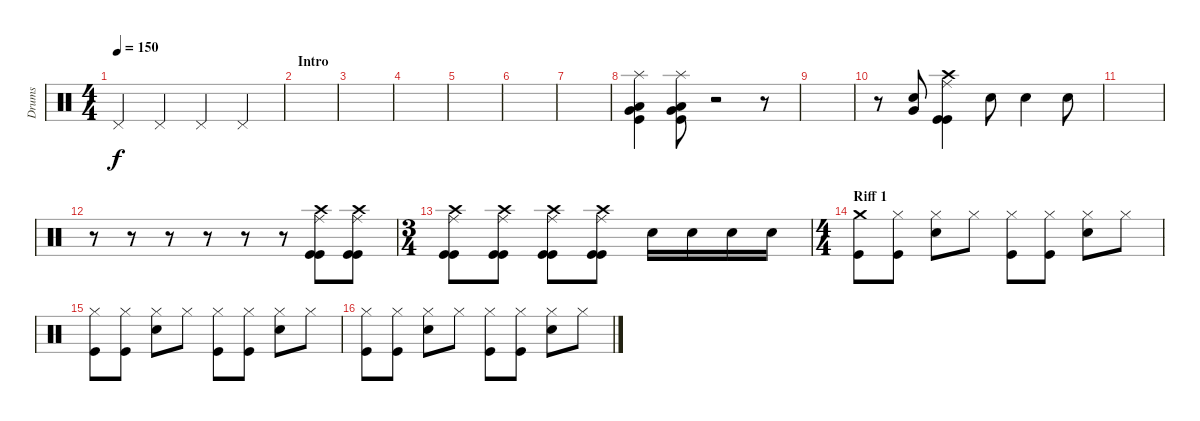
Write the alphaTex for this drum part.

\track ("Drums" "Drums") {instrument percussion}
\staff {score}
\articulation defaults
\ts (4 4)
\tempo 150
\clef neutral
\ks c "Pedal Hi-Hat (hit)".4{dy f} "Pedal Hi-Hat (hit)".4 "Pedal Hi-Hat (hit)".4 "Pedal Hi-Hat (hit)".4
|
\section ("" "Intro")
|
|
|
|
|
|
("Splash (hit)" "Low Floor Tom (hit)" "Very Low Tom (hit)" "Kick (hit)").4 ("Splash (hit)" "Low Floor Tom (hit)" "Very Low Tom (hit)" "Kick (hit)").8 r.2 r.8 |
|
r.8 ("Very Low Tom (hit)" "Electric Snare (hit)").8 ("Crash high (hit)" "Ride (middle)" "Kick (hit)" "Kick (hit)").4 "Electric Snare (hit)".8 "Electric Snare (hit)".4 "Electric Snare (hit)".8 |
|
r.8 r.8 r.8 r.8 r.8 r.8 ("Crash high (hit)" "Ride (middle)" "Kick (hit)" "Kick (hit)").8 ("Crash high (hit)" "Ride (middle)" "Kick (hit)" "Kick (hit)").8 |
\ts (3 4)
("Crash high (hit)" "Ride (middle)" "Kick (hit)" "Kick (hit)").8 ("Crash high (hit)" "Ride (middle)" "Kick (hit)" "Kick (hit)").8 ("Crash high (hit)" "Ride (middle)" "Kick (hit)" "Kick (hit)").8 ("Crash high (hit)" "Ride (middle)" "Kick (hit)" "Kick (hit)").8 "Electric Snare (hit)".16 "Electric Snare (hit)".16 "Electric Snare (hit)".16 "Electric Snare (hit)".16 |
\ts (4 4)
\section ("" "Riff 1")
("Crash medium (hit)" "Kick (hit)").8 ("Hi-Hat (closed)" "Kick (hit)").8 ("Hi-Hat (closed)" "Snare (hit) 2").8 "Hi-Hat (closed)".8 ("Hi-Hat (closed)" "Kick (hit)").8 ("Hi-Hat (closed)" "Kick (hit)").8 ("Hi-Hat (closed)" "Snare (hit) 2").8 "Hi-Hat (closed)".8 |
("Hi-Hat (closed)" "Kick (hit)").8 ("Hi-Hat (closed)" "Kick (hit)").8 ("Hi-Hat (closed)" "Snare (hit) 2").8 "Hi-Hat (closed)".8 ("Hi-Hat (closed)" "Kick (hit)").8 ("Hi-Hat (closed)" "Kick (hit)").8 ("Hi-Hat (closed)" "Snare (hit) 2").8 "Hi-Hat (closed)".8 |
("Hi-Hat (closed)" "Kick (hit)").8 ("Hi-Hat (closed)" "Kick (hit)").8 ("Hi-Hat (closed)" "Snare (hit) 2").8 "Hi-Hat (closed)".8 ("Hi-Hat (closed)" "Kick (hit)").8 ("Hi-Hat (closed)" "Kick (hit)").8 ("Hi-Hat (closed)" "Snare (hit) 2").8 "Hi-Hat (closed)".8
